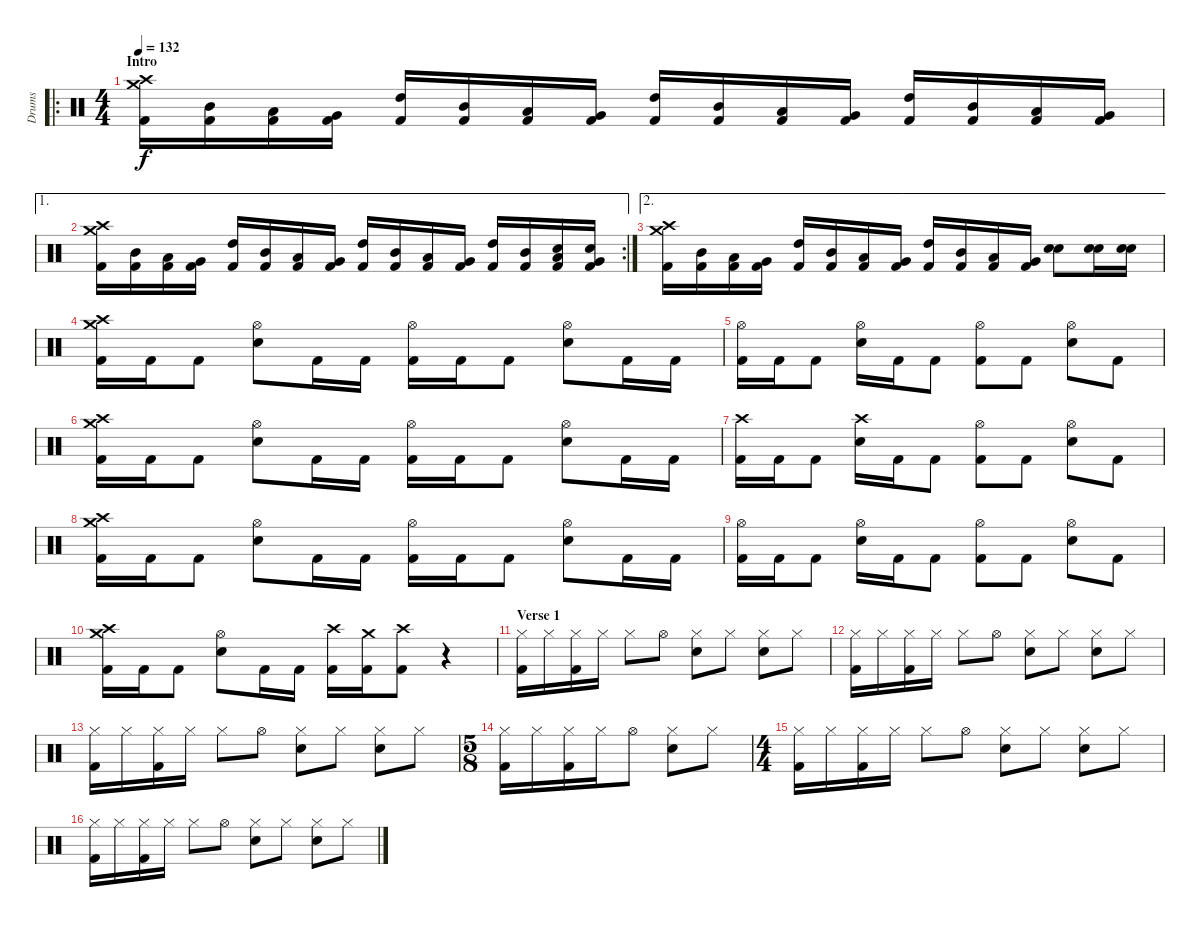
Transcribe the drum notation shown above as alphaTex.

\track ("Drums" "Drums") {instrument percussion}
\staff {score}
\articulation defaults
\ro
\ts (4 4)
\section ("" "Intro")
\tempo 132
\clef neutral
\ks c
("Crash high (hit)" "Crash medium (hit)" "Kick (hit) 2").16{dy f} ("Mid Tom (hit)" "Kick (hit) 2").16 ("Low Tom (hit)" "Kick (hit) 2").16 ("Very Low Tom (hit)" "Kick (hit) 2").16 ("High Tom (hit)" "Kick (hit) 2").16 ("Mid Tom (hit)" "Kick (hit) 2").16 ("Low Tom (hit)" "Kick (hit) 2").16 ("Very Low Tom (hit)" "Kick (hit) 2").16 ("High Tom (hit)" "Kick (hit) 2").16 ("Mid Tom (hit)" "Kick (hit) 2").16 ("Low Tom (hit)" "Kick (hit) 2").16 ("Very Low Tom (hit)" "Kick (hit) 2").16 ("High Tom (hit)" "Kick (hit) 2").16 ("Mid Tom (hit)" "Kick (hit) 2").16 ("Low Tom (hit)" "Kick (hit) 2").16 ("Very Low Tom (hit)" "Kick (hit) 2").16 |
\ae 1
\rc 2
("Crash high (hit)" "Crash medium (hit)" "Kick (hit) 2").16 ("Mid Tom (hit)" "Kick (hit) 2").16 ("Low Tom (hit)" "Kick (hit) 2").16 ("Very Low Tom (hit)" "Kick (hit) 2").16 ("High Tom (hit)" "Kick (hit) 2").16 ("Mid Tom (hit)" "Kick (hit) 2").16 ("Low Tom (hit)" "Kick (hit) 2").16 ("Very Low Tom (hit)" "Kick (hit) 2").16 ("High Tom (hit)" "Kick (hit) 2").16 ("Mid Tom (hit)" "Kick (hit) 2").16 ("Low Tom (hit)" "Kick (hit) 2").16 ("Very Low Tom (hit)" "Kick (hit) 2").16 ("High Tom (hit)" "Kick (hit) 2").16 ("Mid Tom (hit)" "Kick (hit) 2").16 ("Low Tom (hit)" "Electric Snare (hit)" "Kick (hit) 2").16 ("Very Low Tom (hit)" "Electric Snare (hit)" "Kick (hit) 2").16 |
\ae 2
("Crash high (hit)" "Crash medium (hit)" "Kick (hit) 2").16 ("Mid Tom (hit)" "Kick (hit) 2").16 ("Low Tom (hit)" "Kick (hit) 2").16 ("Very Low Tom (hit)" "Kick (hit) 2").16 ("High Tom (hit)" "Kick (hit) 2").16 ("Mid Tom (hit)" "Kick (hit) 2").16 ("Low Tom (hit)" "Kick (hit) 2").16 ("Very Low Tom (hit)" "Kick (hit) 2").16 ("High Tom (hit)" "Kick (hit) 2").16 ("Mid Tom (hit)" "Kick (hit) 2").16 ("Low Tom (hit)" "Kick (hit) 2").16 ("Very Low Tom (hit)" "Kick (hit) 2").16 ("Electric Snare (hit)" "Electric Snare (hit)").8 ("Electric Snare (hit)" "Electric Snare (hit)").16 ("Electric Snare (hit)" "Electric Snare (hit)").16 |
("Crash high (hit)" "Crash medium (hit)" "Kick (hit) 2").16 "Kick (hit) 2".16 "Kick (hit) 2".8 ("Hi-Hat (open)" "Electric Snare (hit)").8 "Kick (hit) 2".16 "Kick (hit) 2".16 ("Hi-Hat (open)" "Kick (hit) 2").16 "Kick (hit) 2".16 "Kick (hit) 2".8 ("Hi-Hat (open)" "Electric Snare (hit)").8 "Kick (hit) 2".16 "Kick (hit) 2".16 |
("Hi-Hat (open)" "Kick (hit) 2").16 "Kick (hit) 2".16 "Kick (hit) 2".8 ("Hi-Hat (open)" "Electric Snare (hit)").16 "Kick (hit) 2".16 "Kick (hit) 2".8 ("Hi-Hat (open)" "Kick (hit) 2").8 "Kick (hit) 2".8 ("Hi-Hat (open)" "Electric Snare (hit)").8 "Kick (hit) 2".8 |
("Crash high (hit)" "Crash medium (hit)" "Kick (hit) 2").16 "Kick (hit) 2".16 "Kick (hit) 2".8 ("Hi-Hat (open)" "Electric Snare (hit)").8 "Kick (hit) 2".16 "Kick (hit) 2".16 ("Hi-Hat (open)" "Kick (hit) 2").16 "Kick (hit) 2".16 "Kick (hit) 2".8 ("Hi-Hat (open)" "Electric Snare (hit)").8 "Kick (hit) 2".16 "Kick (hit) 2".16 |
("Crash high (hit)" "Kick (hit) 2").16 "Kick (hit) 2".16 "Kick (hit) 2".8 ("Crash high (hit)" "Electric Snare (hit)").16 "Kick (hit) 2".16 "Kick (hit) 2".8 ("Hi-Hat (open)" "Kick (hit) 2").8 "Kick (hit) 2".8 ("Hi-Hat (open)" "Electric Snare (hit)").8 "Kick (hit) 2".8 |
("Crash high (hit)" "Crash medium (hit)" "Kick (hit) 2").16 "Kick (hit) 2".16 "Kick (hit) 2".8 ("Hi-Hat (open)" "Electric Snare (hit)").8 "Kick (hit) 2".16 "Kick (hit) 2".16 ("Hi-Hat (open)" "Kick (hit) 2").16 "Kick (hit) 2".16 "Kick (hit) 2".8 ("Hi-Hat (open)" "Electric Snare (hit)").8 "Kick (hit) 2".16 "Kick (hit) 2".16 |
("Hi-Hat (open)" "Kick (hit) 2").16 "Kick (hit) 2".16 "Kick (hit) 2".8 ("Hi-Hat (open)" "Electric Snare (hit)").16 "Kick (hit) 2".16 "Kick (hit) 2".8 ("Hi-Hat (open)" "Kick (hit) 2").8 "Kick (hit) 2".8 ("Hi-Hat (open)" "Electric Snare (hit)").8 "Kick (hit) 2".8 |
("Crash high (hit)" "Crash medium (hit)" "Kick (hit) 2").16 "Kick (hit) 2".16 "Kick (hit) 2".8 ("Hi-Hat (open)" "Electric Snare (hit)").8 "Kick (hit) 2".16 "Kick (hit) 2".16 ("Crash high (hit)" "Kick (hit) 2").16 ("Crash medium (hit)" "Kick (hit) 2").16 ("Crash high (hit)" "Kick (hit) 2").8 r.4 |
\section ("" "Verse 1")
("Hi-Hat (closed)" "Kick (hit) 2").16 "Hi-Hat (closed)".16 ("Hi-Hat (closed)" "Kick (hit) 2").16 "Hi-Hat (closed)".16 "Hi-Hat (closed)".8 "Hi-Hat (open)".8 ("Hi-Hat (closed)" "Electric Snare (hit)").8 "Hi-Hat (closed)".8 ("Hi-Hat (closed)" "Electric Snare (hit)").8 "Hi-Hat (closed)".8 |
("Hi-Hat (closed)" "Kick (hit) 2").16 "Hi-Hat (closed)".16 ("Hi-Hat (closed)" "Kick (hit) 2").16 "Hi-Hat (closed)".16 "Hi-Hat (closed)".8 "Hi-Hat (open)".8 ("Hi-Hat (closed)" "Electric Snare (hit)").8 "Hi-Hat (closed)".8 ("Hi-Hat (closed)" "Electric Snare (hit)").8 "Hi-Hat (closed)".8 |
("Hi-Hat (closed)" "Kick (hit) 2").16 "Hi-Hat (closed)".16 ("Hi-Hat (closed)" "Kick (hit) 2").16 "Hi-Hat (closed)".16 "Hi-Hat (closed)".8 "Hi-Hat (open)".8 ("Hi-Hat (closed)" "Electric Snare (hit)").8 "Hi-Hat (closed)".8 ("Hi-Hat (closed)" "Electric Snare (hit)").8 "Hi-Hat (closed)".8 |
\ts (5 8)
("Hi-Hat (closed)" "Kick (hit) 2").16 "Hi-Hat (closed)".16 ("Hi-Hat (closed)" "Kick (hit) 2").16 "Hi-Hat (closed)".16 "Hi-Hat (open)".8 ("Hi-Hat (closed)" "Electric Snare (hit)").8 "Hi-Hat (closed)".8 |
\ts (4 4)
("Hi-Hat (closed)" "Kick (hit) 2").16 "Hi-Hat (closed)".16 ("Hi-Hat (closed)" "Kick (hit) 2").16 "Hi-Hat (closed)".16 "Hi-Hat (closed)".8 "Hi-Hat (open)".8 ("Hi-Hat (closed)" "Electric Snare (hit)").8 "Hi-Hat (closed)".8 ("Hi-Hat (closed)" "Electric Snare (hit)").8 "Hi-Hat (closed)".8 |
("Hi-Hat (closed)" "Kick (hit) 2").16 "Hi-Hat (closed)".16 ("Hi-Hat (closed)" "Kick (hit) 2").16 "Hi-Hat (closed)".16 "Hi-Hat (closed)".8 "Hi-Hat (open)".8 ("Hi-Hat (closed)" "Electric Snare (hit)").8 "Hi-Hat (closed)".8 ("Hi-Hat (closed)" "Electric Snare (hit)").8 "Hi-Hat (closed)".8
